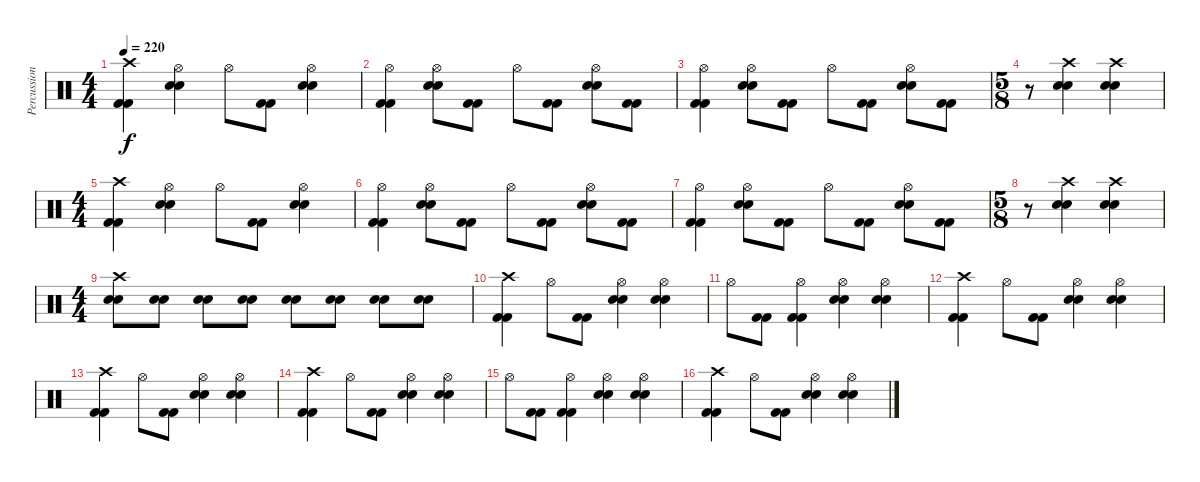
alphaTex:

\track ("Percussion" "Percussion") {instrument percussion}
\staff {score}
\articulation defaults
\ts (4 4)
\tempo 220
\clef neutral
\ks c
("Crash high (hit)" "Kick (hit) 2" "Kick (hit) 2").4{dy f} ("Hi-Hat (open)" "Electric Snare (hit)" "Electric Snare (hit)").4 "Hi-Hat (open)".8 ("Kick (hit) 2" "Kick (hit) 2").8 ("Hi-Hat (open)" "Electric Snare (hit)" "Electric Snare (hit)").4 |
("Hi-Hat (open)" "Kick (hit) 2" "Kick (hit) 2").4 ("Hi-Hat (open)" "Electric Snare (hit)" "Electric Snare (hit)").8 ("Kick (hit) 2" "Kick (hit) 2").8 "Hi-Hat (open)".8 ("Kick (hit) 2" "Kick (hit) 2").8 ("Hi-Hat (open)" "Electric Snare (hit)" "Electric Snare (hit)").8 ("Kick (hit) 2" "Kick (hit) 2").8 |
("Hi-Hat (open)" "Kick (hit) 2" "Kick (hit) 2").4 ("Hi-Hat (open)" "Electric Snare (hit)" "Electric Snare (hit)").8 ("Kick (hit) 2" "Kick (hit) 2").8 "Hi-Hat (open)".8 ("Kick (hit) 2" "Kick (hit) 2").8 ("Hi-Hat (open)" "Electric Snare (hit)" "Electric Snare (hit)").8 ("Kick (hit) 2" "Kick (hit) 2").8 |
\ts (5 8)
r.8 ("Crash high (hit)" "Electric Snare (hit)" "Electric Snare (hit)").4 ("Crash high (hit)" "Electric Snare (hit)" "Electric Snare (hit)").4 |
\ts (4 4)
("Crash high (hit)" "Kick (hit) 2" "Kick (hit) 2").4 ("Hi-Hat (open)" "Electric Snare (hit)" "Electric Snare (hit)").4 "Hi-Hat (open)".8 ("Kick (hit) 2" "Kick (hit) 2").8 ("Hi-Hat (open)" "Electric Snare (hit)" "Electric Snare (hit)").4 |
("Hi-Hat (open)" "Kick (hit) 2" "Kick (hit) 2").4 ("Hi-Hat (open)" "Electric Snare (hit)" "Electric Snare (hit)").8 ("Kick (hit) 2" "Kick (hit) 2").8 "Hi-Hat (open)".8 ("Kick (hit) 2" "Kick (hit) 2").8 ("Hi-Hat (open)" "Electric Snare (hit)" "Electric Snare (hit)").8 ("Kick (hit) 2" "Kick (hit) 2").8 |
("Hi-Hat (open)" "Kick (hit) 2" "Kick (hit) 2").4 ("Hi-Hat (open)" "Electric Snare (hit)" "Electric Snare (hit)").8 ("Kick (hit) 2" "Kick (hit) 2").8 "Hi-Hat (open)".8 ("Kick (hit) 2" "Kick (hit) 2").8 ("Hi-Hat (open)" "Electric Snare (hit)" "Electric Snare (hit)").8 ("Kick (hit) 2" "Kick (hit) 2").8 |
\ts (5 8)
r.8 ("Crash high (hit)" "Electric Snare (hit)" "Electric Snare (hit)").4 ("Crash high (hit)" "Electric Snare (hit)" "Electric Snare (hit)").4 |
\ts (4 4)
("Crash high (hit)" "Electric Snare (hit)" "Electric Snare (hit)").8 ("Electric Snare (hit)" "Electric Snare (hit)").8 ("Electric Snare (hit)" "Electric Snare (hit)").8 ("Electric Snare (hit)" "Electric Snare (hit)").8 ("Electric Snare (hit)" "Electric Snare (hit)").8 ("Electric Snare (hit)" "Electric Snare (hit)").8 ("Electric Snare (hit)" "Electric Snare (hit)").8 ("Electric Snare (hit)" "Electric Snare (hit)").8 |
("Crash high (hit)" "Kick (hit) 2" "Kick (hit) 2").4 "Hi-Hat (open)".8 ("Kick (hit) 2" "Kick (hit) 2").8 ("Hi-Hat (open)" "Electric Snare (hit)" "Electric Snare (hit)").4 ("Hi-Hat (open)" "Electric Snare (hit)" "Electric Snare (hit)").4 |
"Hi-Hat (open)".8 ("Kick (hit) 2" "Kick (hit) 2").8 ("Hi-Hat (open)" "Kick (hit) 2" "Kick (hit) 2").4 ("Hi-Hat (open)" "Electric Snare (hit)" "Electric Snare (hit)").4 ("Hi-Hat (open)" "Electric Snare (hit)" "Electric Snare (hit)").4 |
("Crash high (hit)" "Kick (hit) 2" "Kick (hit) 2").4 "Hi-Hat (open)".8 ("Kick (hit) 2" "Kick (hit) 2").8 ("Hi-Hat (open)" "Electric Snare (hit)" "Electric Snare (hit)").4 ("Hi-Hat (open)" "Electric Snare (hit)" "Electric Snare (hit)").4 |
("Crash high (hit)" "Kick (hit) 2" "Kick (hit) 2").4 "Hi-Hat (open)".8 ("Kick (hit) 2" "Kick (hit) 2").8 ("Hi-Hat (open)" "Electric Snare (hit)" "Electric Snare (hit)").4 ("Hi-Hat (open)" "Electric Snare (hit)" "Electric Snare (hit)").4 |
("Crash high (hit)" "Kick (hit) 2" "Kick (hit) 2").4 "Hi-Hat (open)".8 ("Kick (hit) 2" "Kick (hit) 2").8 ("Hi-Hat (open)" "Electric Snare (hit)" "Electric Snare (hit)").4 ("Hi-Hat (open)" "Electric Snare (hit)" "Electric Snare (hit)").4 |
"Hi-Hat (open)".8 ("Kick (hit) 2" "Kick (hit) 2").8 ("Hi-Hat (open)" "Kick (hit) 2" "Kick (hit) 2").4 ("Hi-Hat (open)" "Electric Snare (hit)" "Electric Snare (hit)").4 ("Hi-Hat (open)" "Electric Snare (hit)" "Electric Snare (hit)").4 |
("Crash high (hit)" "Kick (hit) 2" "Kick (hit) 2").4 "Hi-Hat (open)".8 ("Kick (hit) 2" "Kick (hit) 2").8 ("Hi-Hat (open)" "Electric Snare (hit)" "Electric Snare (hit)").4 ("Hi-Hat (open)" "Electric Snare (hit)" "Electric Snare (hit)").4
